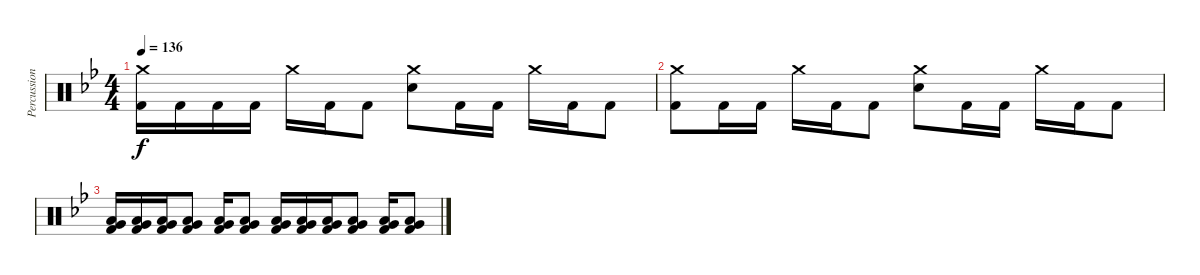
\track ("Percussion" "Percussion") {instrument percussion}
\staff {score}
\articulation defaults
\ts (4 4)
\tempo 136
\clef neutral
\ks bb
("Crash medium (hit)" "Kick (hit) 2").16{dy f} "Kick (hit) 2".16 "Kick (hit) 2".16 "Kick (hit) 2".16 "Crash medium (hit)".16 "Kick (hit) 2".16 "Kick (hit) 2".8 ("Crash medium (hit)" "Electric Snare (hit)").8 "Kick (hit) 2".16 "Kick (hit) 2".16 "Crash medium (hit)".16 "Kick (hit) 2".16 "Kick (hit) 2".8 |
("Crash medium (hit)" "Kick (hit) 2").8 "Kick (hit) 2".16 "Kick (hit) 2".16 "Crash medium (hit)".16 "Kick (hit) 2".16 "Kick (hit) 2".8 ("Crash medium (hit)" "Electric Snare (hit)").8 "Kick (hit) 2".16 "Kick (hit) 2".16 "Crash medium (hit)".16 "Kick (hit) 2".16 "Kick (hit) 2".8 |
("Very Low Tom (hit)" "Low Floor Tom (hit)" "Kick (hit) 2").16 ("Very Low Tom (hit)" "Low Floor Tom (hit)" "Kick (hit) 2").16 ("Very Low Tom (hit)" "Low Floor Tom (hit)" "Kick (hit) 2").16 ("Very Low Tom (hit)" "Low Floor Tom (hit)" "Kick (hit) 2").8 ("Very Low Tom (hit)" "Low Floor Tom (hit)" "Kick (hit) 2").16 ("Very Low Tom (hit)" "Low Floor Tom (hit)" "Kick (hit) 2").8 ("Very Low Tom (hit)" "Low Floor Tom (hit)" "Kick (hit) 2").16 ("Very Low Tom (hit)" "Low Floor Tom (hit)" "Kick (hit) 2").16 ("Very Low Tom (hit)" "Low Floor Tom (hit)" "Kick (hit) 2").16 ("Very Low Tom (hit)" "Low Floor Tom (hit)" "Kick (hit) 2").8 ("Very Low Tom (hit)" "Low Floor Tom (hit)" "Kick (hit) 2").16 ("Very Low Tom (hit)" "Low Floor Tom (hit)" "Kick (hit) 2").8
